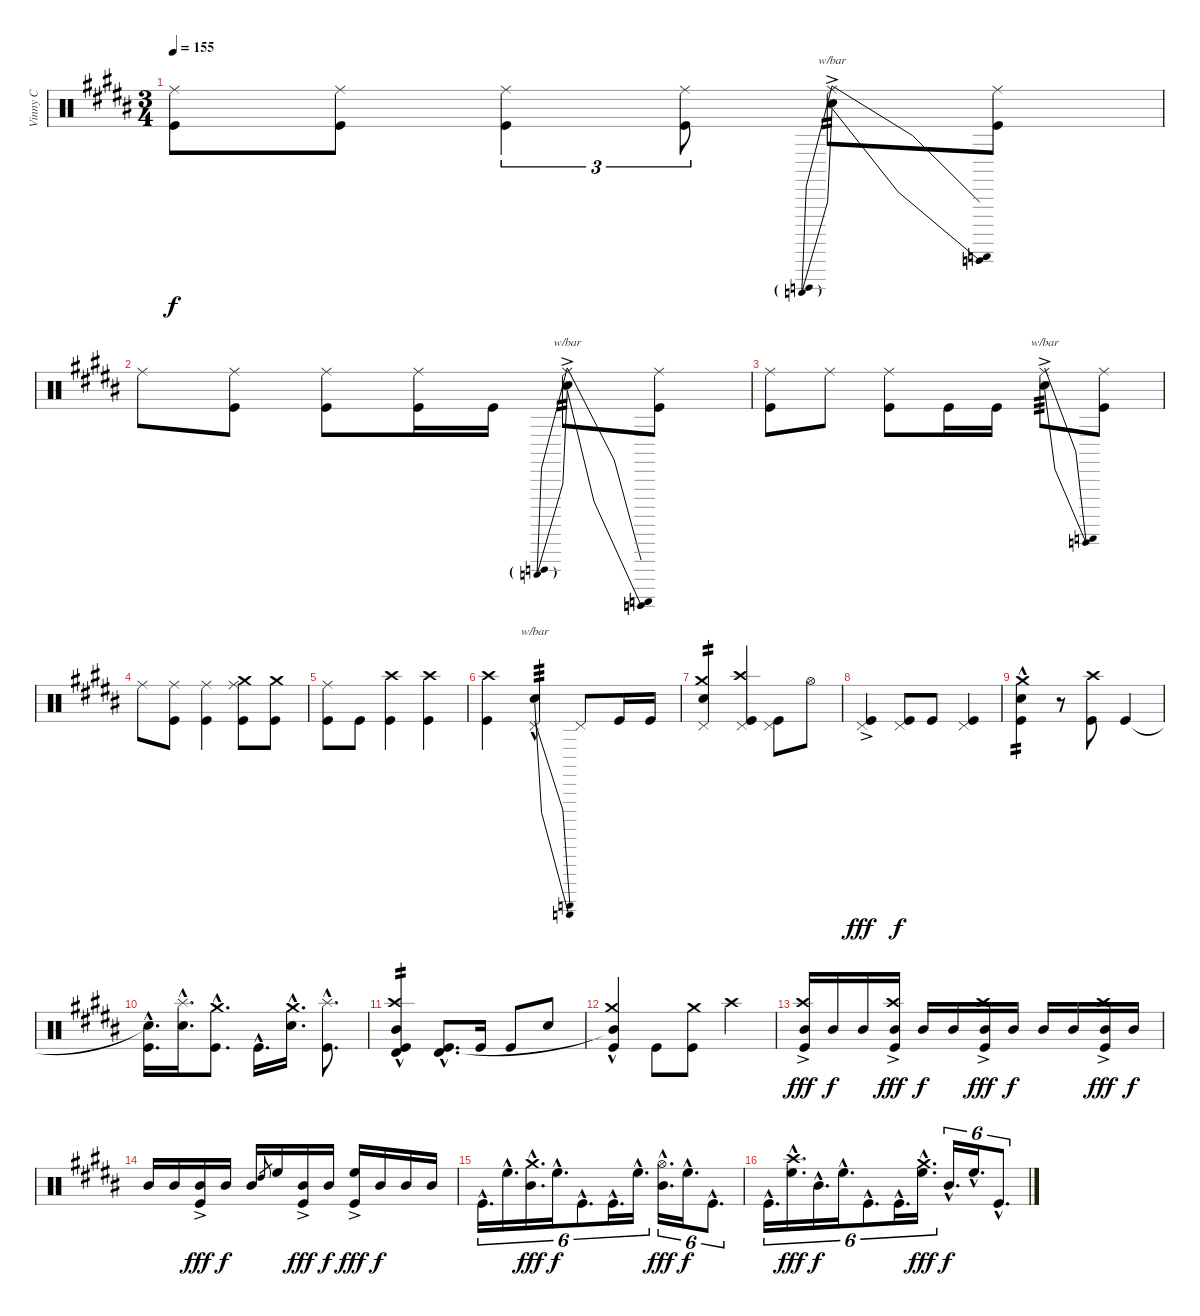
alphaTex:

\track ("Vinny C" "Vinny C") {instrument percussion}
\staff {score}
\articulation defaults
\ts (3 4)
\tempo 155
\clef neutral
\ks b
("Ride (middle)" "Kick (hit)").8{dy f} ("Ride (middle)" "Kick (hit)").8 ("Ride (middle)" "Kick (hit)").4{tu (3 2)} ("Ride (middle)" "Kick (hit)").8{tu (3 2)} ("Ride (middle)" "Electric Snare (hit)"{ac}).8{tbe (predivedive default 0 -24 60 24) tp 2} ("Ride (middle)" "Kick (hit)").8 |
"Ride (middle)".8 ("Ride (middle)" "Kick (hit)").8 ("Ride (middle)" "Kick (hit)").8 ("Ride (middle)" "Kick (hit)").16 "Kick (hit)".16 ("Ride (middle)" "Electric Snare (hit)"{ac}).8{tbe (predivedive default 0 24 60 -24) tp 2} ("Ride (middle)" "Kick (hit)").8 |
("Ride (middle)" "Kick (hit)").8 "Ride (middle)".8 ("Ride (middle)" "Kick (hit)").8 "Kick (hit)".16 "Kick (hit)".16 ("Ride (middle)" "Electric Snare (hit)"{ac}).8{tbe (dive default 0 0 60 24) tp 3} ("Ride (middle)" "Kick (hit)").8 |
"Ride (middle)".8 ("Ride (middle)" "Kick (hit)").8 ("Ride (middle)" "Kick (hit)").4 ("Ride (middle)" "Crash medium (hit)" "Kick (hit)").8 ("Crash medium (hit)" "Kick (hit)").8 |
("Ride (middle)" "Kick (hit)").8 "Kick (hit)".8 ("Crash high (hit)" "Kick (hit)").4 ("Crash high (hit)" "Kick (hit)").4 |
("Crash high (hit)" "Kick (hit)").4 ("Pedal Hi-Hat (hit)" "Electric Snare (hit)"{hac}).4{tbe (dive default 0 0 60 -24) tp 3} "Pedal Hi-Hat (hit)".8 "Kick (hit)".16 "Kick (hit)".16 |
("Pedal Hi-Hat (hit)" "Crash medium (hit)" "Electric Snare (hit)").4{tp 2} ("Pedal Hi-Hat (hit)" "Crash high (hit)" "Kick (hit)").4 ("Pedal Hi-Hat (hit)" "Kick (hit)").8 "Hi-Hat (open)".8 |
("Pedal Hi-Hat (hit)" "Kick (hit)"{ac}).4{dy fff} ("Pedal Hi-Hat (hit)" "Kick (hit)").8{dy f} "Kick (hit)".8 ("Pedal Hi-Hat (hit)" "Kick (hit)").4 |
("Crash medium (hit)" "Electric Snare (hit)"{hac} "Kick (hit)").4{tp 2} r.8 ("Crash high (hit)" "Kick (hit)").8 "Kick (hit)".4 |
("Electric Snare (hit)"{hac t} "Kick (hit)"{hac}).16{d} ("Splash (hit)"{hac} "Electric Snare (hit)"{hac}).16{d} ("Crash medium (hit)"{hac} "Kick (hit)"{hac}).8{d} "Kick (hit)"{hac}.16{d} ("Crash medium (hit)"{hac} "Electric Snare (hit)"{hac}).16{d} ("Splash (hit)"{hac} "Kick (hit)"{hac}).8{d} |
("Crash high (hit)" "Timbale high (hit)" "Mid Tom (hit)"{hac} "Kick (hit)").4{tp 2} ("Timbale high (hit)"{hac} "Kick (hit)"{hac}).8{d} "Kick (hit)".16 "Kick (hit)".8 "Electric Snare (hit)".8 |
("Crash medium (hit)" "Mid Tom (hit)"{hac t} "Kick (hit)").4 "Kick (hit)".8 ("Crash medium (hit)" "Kick (hit)").8 "Crash high (hit)".4 |
("Crash high (hit)" "Mid Tom (hit)" "Kick (hit)"{ac}).16{dy fff} "Mid Tom (hit)".16{dy f} "Mid Tom (hit)".16 ("Crash high (hit)" "Mid Tom (hit)" "Kick (hit)"{ac}).16{dy fff} "Mid Tom (hit)".16{dy f} "Mid Tom (hit)".16 ("Crash high (hit)" "Mid Tom (hit)" "Kick (hit)"{ac}).16{dy fff} "Mid Tom (hit)".16{dy f} "Mid Tom (hit)".16 "Mid Tom (hit)".16 ("Crash high (hit)" "Mid Tom (hit)" "Kick (hit)"{ac}).16{dy fff} "Mid Tom (hit)".16{dy f} |
"Mid Tom (hit)".16 "Mid Tom (hit)".16 ("Mid Tom (hit)" "Kick (hit)"{ac}).16{dy fff} "Mid Tom (hit)".16{dy f} "Mid Tom (hit)".16 "High Tom (hit)".8{gr} "High Floor Tom (hit)".16 ("Mid Tom (hit)" "Kick (hit)"{ac}).16{dy fff} "Mid Tom (hit)".16{dy f} ("High Floor Tom (hit)" "Kick (hit)"{ac}).16{dy fff} "Mid Tom (hit)".16{dy f} "Mid Tom (hit)".16 "Mid Tom (hit)".16 |
"Kick (hit)"{hac}.16{d tu (6 4)} "High Floor Tom (hit)"{hac}.16{d tu (6 4)} ("Crash medium (hit)"{hac} "Mid Tom (hit)"{hac}).16{d tu (6 4) dy fff} "High Floor Tom (hit)"{hac}.16{d tu (6 4) dy f} "Kick (hit)"{hac}.8{d tu (6 4)} "Kick (hit)"{hac}.16{d tu (6 4)} "High Floor Tom (hit)"{hac}.16{d tu (6 4)} ("Hi-Hat (open)"{hac} "Mid Tom (hit)"{hac}).16{d tu (6 4) dy fff} "High Floor Tom (hit)"{hac}.16{d tu (6 4) dy f} "Kick (hit)"{hac}.8{d tu (6 4)} |
"Kick (hit)"{hac}.16{d tu (6 4)} ("Crash high (hit)"{hac} "High Floor Tom (hit)"{hac}).16{d tu (6 4) dy fff} "Mid Tom (hit)"{hac}.16{d tu (6 4) dy f} "High Floor Tom (hit)"{hac}.16{d tu (6 4)} "Kick (hit)"{hac}.8{d tu (6 4)} "Kick (hit)"{hac}.16{d tu (6 4)} ("Crash medium (hit)"{hac} "High Floor Tom (hit)"{hac}).16{d tu (6 4) dy fff} "Mid Tom (hit)"{hac}.16{d tu (6 4) dy f} "High Floor Tom (hit)"{hac}.16{d tu (6 4)} "Kick (hit)"{hac}.8{d tu (6 4)}
